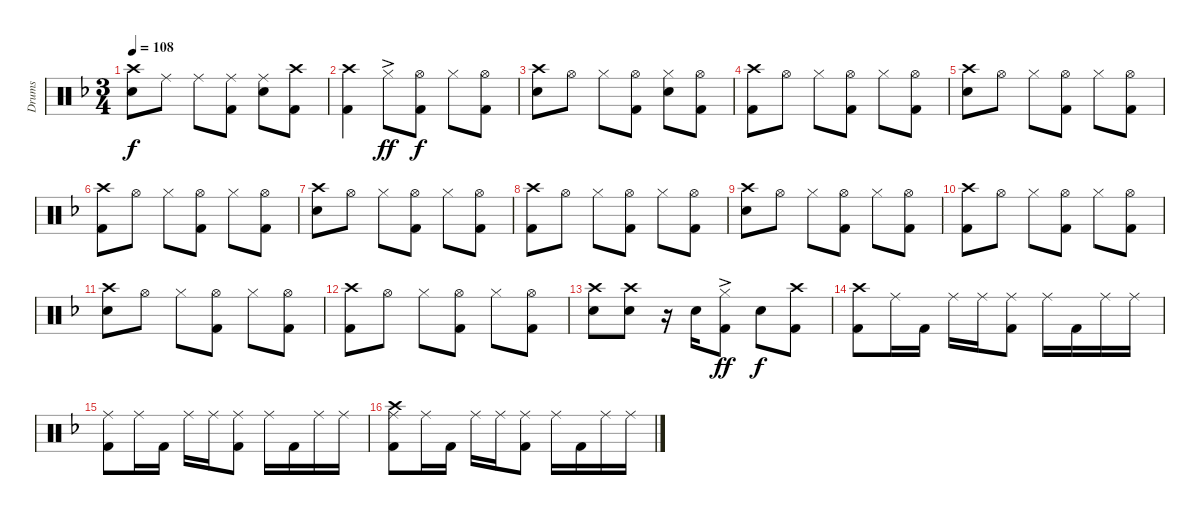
\track ("Drums" "Drums") {instrument percussion}
\staff {score}
\articulation defaults
\ts (3 4)
\tempo 108
\clef neutral
\ks dminor
("Crash high (hit)" "Snare (hit) 2").8{dy f} "Ride (middle)".8 "Ride (middle)".8 ("Ride (middle)" "Kick (hit) 2").8 ("Ride (middle)" "Snare (hit) 2").8 ("Crash high (hit)" "Kick (hit) 2").8 |
("Crash high (hit)" "Kick (hit) 2").4 "Hi-Hat (closed)"{ac}.8{dy ff} ("Hi-Hat (open)" "Kick (hit) 2").8{dy f} "Hi-Hat (closed)".8 ("Hi-Hat (open)" "Kick (hit) 2").8 |
("Crash high (hit)" "Snare (hit) 2").8 "Hi-Hat (open)".8 "Hi-Hat (closed)".8 ("Hi-Hat (open)" "Kick (hit) 2").8 ("Hi-Hat (closed)" "Snare (hit) 2").8 ("Hi-Hat (open)" "Kick (hit) 2").8 |
("Crash high (hit)" "Kick (hit) 2").8 "Hi-Hat (open)".8 "Hi-Hat (closed)".8 ("Hi-Hat (open)" "Kick (hit) 2").8 "Hi-Hat (closed)".8 ("Hi-Hat (open)" "Kick (hit) 2").8 |
("Crash high (hit)" "Snare (hit) 2").8 "Hi-Hat (open)".8 "Hi-Hat (closed)".8 ("Hi-Hat (open)" "Kick (hit) 2").8 "Hi-Hat (closed)".8 ("Hi-Hat (open)" "Kick (hit) 2").8 |
("Crash high (hit)" "Kick (hit) 2").8 "Hi-Hat (open)".8 "Hi-Hat (closed)".8 ("Hi-Hat (open)" "Kick (hit) 2").8 "Hi-Hat (closed)".8 ("Hi-Hat (open)" "Kick (hit) 2").8 |
("Crash high (hit)" "Snare (hit) 2").8 "Hi-Hat (open)".8 "Hi-Hat (closed)".8 ("Hi-Hat (open)" "Kick (hit) 2").8 "Hi-Hat (closed)".8 ("Hi-Hat (open)" "Kick (hit) 2").8 |
("Crash high (hit)" "Kick (hit) 2").8 "Hi-Hat (open)".8 "Hi-Hat (closed)".8 ("Hi-Hat (open)" "Kick (hit) 2").8 "Hi-Hat (closed)".8 ("Hi-Hat (open)" "Kick (hit) 2").8 |
("Crash high (hit)" "Snare (hit) 2").8 "Hi-Hat (open)".8 "Hi-Hat (closed)".8 ("Hi-Hat (open)" "Kick (hit) 2").8 "Hi-Hat (closed)".8 ("Hi-Hat (open)" "Kick (hit) 2").8 |
("Crash high (hit)" "Kick (hit) 2").8 "Hi-Hat (open)".8 "Hi-Hat (closed)".8 ("Hi-Hat (open)" "Kick (hit) 2").8 "Hi-Hat (closed)".8 ("Hi-Hat (open)" "Kick (hit) 2").8 |
("Crash high (hit)" "Snare (hit) 2").8 "Hi-Hat (open)".8 "Hi-Hat (closed)".8 ("Hi-Hat (open)" "Kick (hit) 2").8 "Hi-Hat (closed)".8 ("Hi-Hat (open)" "Kick (hit) 2").8 |
("Crash high (hit)" "Kick (hit) 2").8 "Hi-Hat (open)".8 "Hi-Hat (closed)".8 ("Hi-Hat (open)" "Kick (hit) 2").8 "Hi-Hat (closed)".8 ("Hi-Hat (open)" "Kick (hit) 2").8 |
("Crash high (hit)" "Snare (hit) 2").8 ("Crash high (hit)" "Snare (hit) 2").8 r.16 "Snare (hit) 2".16 ("Hi-Hat (closed)"{ac} "Kick (hit) 2").8{dy ff} "Snare (hit) 2".8{dy f} ("Crash high (hit)" "Kick (hit) 2").8 |
("Crash high (hit)" "Kick (hit) 2").8 "Ride (middle)".16 "Kick (hit) 2".16 "Ride (middle)".16 "Ride (middle)".16 ("Ride (middle)" "Kick (hit) 2").8 "Ride (middle)".16 "Kick (hit) 2".16 "Ride (middle)".16 "Ride (middle)".16 |
("Ride (middle)" "Kick (hit) 2").8 "Ride (middle)".16 "Kick (hit) 2".16 "Ride (middle)".16 "Ride (middle)".16 ("Ride (middle)" "Kick (hit) 2").8 "Ride (middle)".16 "Kick (hit) 2".16 "Ride (middle)".16 "Ride (middle)".16 |
("Crash high (hit)" "Ride (middle)" "Kick (hit) 2").8 "Ride (middle)".16 "Kick (hit) 2".16 "Ride (middle)".16 "Ride (middle)".16 ("Ride (middle)" "Kick (hit) 2").8 "Ride (middle)".16 "Kick (hit) 2".16 "Ride (middle)".16 "Ride (middle)".16
